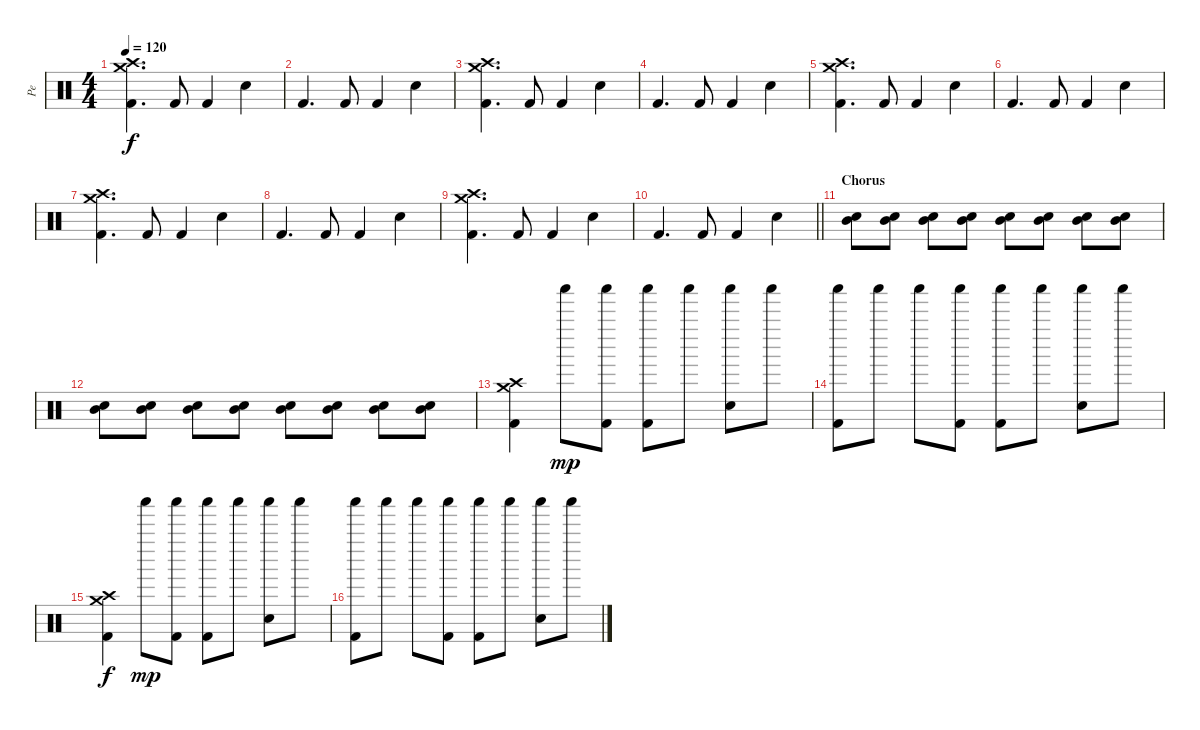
\track ("Pe" "Pe") {instrument percussion}
\staff {score}
\articulation defaults
\ts (4 4)
\tempo 120
\clef neutral
\ks c
("Crash high (hit)" "Crash medium (hit)" "Kick (hit) 2").4{d dy f} "Kick (hit) 2".8 "Kick (hit) 2".4 "Electric Snare (hit)".4 |
"Kick (hit) 2".4{d} "Kick (hit) 2".8 "Kick (hit) 2".4 "Electric Snare (hit)".4 |
("Crash high (hit)" "Crash medium (hit)" "Kick (hit) 2").4{d} "Kick (hit) 2".8 "Kick (hit) 2".4 "Electric Snare (hit)".4 |
"Kick (hit) 2".4{d} "Kick (hit) 2".8 "Kick (hit) 2".4 "Electric Snare (hit)".4 |
("Crash high (hit)" "Crash medium (hit)" "Kick (hit) 2").4{d} "Kick (hit) 2".8 "Kick (hit) 2".4 "Electric Snare (hit)".4 |
"Kick (hit) 2".4{d} "Kick (hit) 2".8 "Kick (hit) 2".4 "Electric Snare (hit)".4 |
("Crash high (hit)" "Crash medium (hit)" "Kick (hit) 2").4{d} "Kick (hit) 2".8 "Kick (hit) 2".4 "Electric Snare (hit)".4 |
"Kick (hit) 2".4{d} "Kick (hit) 2".8 "Kick (hit) 2".4 "Electric Snare (hit)".4 |
("Crash high (hit)" "Crash medium (hit)" "Kick (hit) 2").4{d} "Kick (hit) 2".8 "Kick (hit) 2".4 "Electric Snare (hit)".4 |
\barLineRight lightlight "Kick (hit) 2".4{d} "Kick (hit) 2".8 "Kick (hit) 2".4 "Electric Snare (hit)".4
|
\section ("" "Chorus")
("Mid Tom (hit)" "Snare (hit) 2").8 ("Mid Tom (hit)" "Snare (hit) 2").8 ("Mid Tom (hit)" "Snare (hit) 2").8 ("Mid Tom (hit)" "Snare (hit) 2").8 ("Mid Tom (hit)" "Snare (hit) 2").8 ("Mid Tom (hit)" "Snare (hit) 2").8 ("Mid Tom (hit)" "Snare (hit) 2").8 ("Mid Tom (hit)" "Snare (hit) 2").8 |
("Mid Tom (hit)" "Snare (hit) 2").8 ("Mid Tom (hit)" "Snare (hit) 2").8 ("Mid Tom (hit)" "Snare (hit) 2").8 ("Mid Tom (hit)" "Snare (hit) 2").8 ("Mid Tom (hit)" "Snare (hit) 2").8 ("Mid Tom (hit)" "Snare (hit) 2").8 ("Mid Tom (hit)" "Snare (hit) 2").8 ("Mid Tom (hit)" "Snare (hit) 2").8 |
("Crash high (hit)" "Crash medium (hit)" "Kick (hit) 2").4 "Shaker (hit)".8{dy mp} ("Shaker (hit)" "Kick (hit) 2").8 ("Shaker (hit)" "Kick (hit) 2").8 "Shaker (hit)".8 ("Shaker (hit)" "Electric Snare (hit)").8 "Shaker (hit)".8 |
("Shaker (hit)" "Kick (hit) 2").8 "Shaker (hit)".8 "Shaker (hit)".8 ("Shaker (hit)" "Kick (hit) 2").8 ("Shaker (hit)" "Kick (hit) 2").8 "Shaker (hit)".8 ("Shaker (hit)" "Electric Snare (hit)").8 "Shaker (hit)".8 |
("Crash high (hit)" "Crash medium (hit)" "Kick (hit) 2").4{dy f} "Shaker (hit)".8{dy mp} ("Shaker (hit)" "Kick (hit) 2").8 ("Shaker (hit)" "Kick (hit) 2").8 "Shaker (hit)".8 ("Shaker (hit)" "Electric Snare (hit)").8 "Shaker (hit)".8 |
("Shaker (hit)" "Kick (hit) 2").8 "Shaker (hit)".8 "Shaker (hit)".8 ("Shaker (hit)" "Kick (hit) 2").8 ("Shaker (hit)" "Kick (hit) 2").8 "Shaker (hit)".8 ("Shaker (hit)" "Electric Snare (hit)").8 "Shaker (hit)".8
